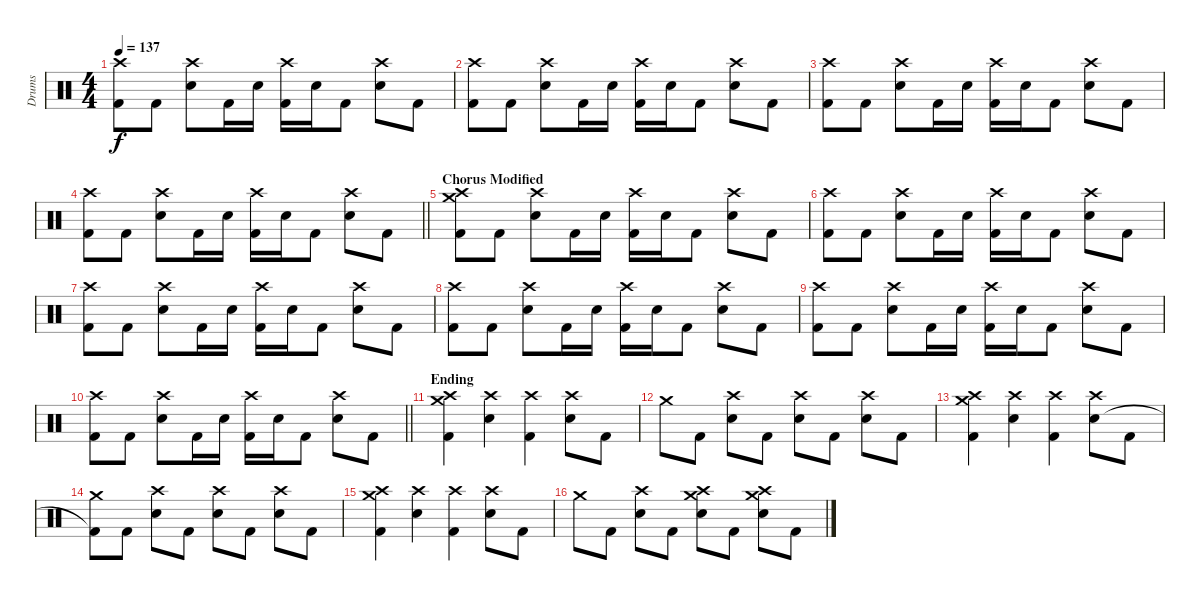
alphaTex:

\track ("Drums" "Drums") {instrument percussion}
\staff {score}
\articulation defaults
\ts (4 4)
\tempo 137
\clef neutral
\ks c
("Crash high (hit)" "Kick (hit) 2").8{dy f} "Kick (hit) 2".8 ("Crash high (hit)" "Electric Snare (hit)").8 "Kick (hit) 2".16 "Electric Snare (hit)".16 ("Crash high (hit)" "Kick (hit) 2").16 "Electric Snare (hit)".16 "Kick (hit) 2".8 ("Crash high (hit)" "Electric Snare (hit)").8 "Kick (hit) 2".8 |
("Crash high (hit)" "Kick (hit) 2").8 "Kick (hit) 2".8 ("Crash high (hit)" "Electric Snare (hit)").8 "Kick (hit) 2".16 "Electric Snare (hit)".16 ("Crash high (hit)" "Kick (hit) 2").16 "Electric Snare (hit)".16 "Kick (hit) 2".8 ("Crash high (hit)" "Electric Snare (hit)").8 "Kick (hit) 2".8 |
("Crash high (hit)" "Kick (hit) 2").8 "Kick (hit) 2".8 ("Crash high (hit)" "Electric Snare (hit)").8 "Kick (hit) 2".16 "Electric Snare (hit)".16 ("Crash high (hit)" "Kick (hit) 2").16 "Electric Snare (hit)".16 "Kick (hit) 2".8 ("Crash high (hit)" "Electric Snare (hit)").8 "Kick (hit) 2".8 |
\barLineRight lightlight
("Crash high (hit)" "Kick (hit) 2").8 "Kick (hit) 2".8 ("Crash high (hit)" "Electric Snare (hit)").8 "Kick (hit) 2".16 "Electric Snare (hit)".16 ("Crash high (hit)" "Kick (hit) 2").16 "Electric Snare (hit)".16 "Kick (hit) 2".8 ("Crash high (hit)" "Electric Snare (hit)").8 "Kick (hit) 2".8 |
\section ("" "Chorus Modified")
("Crash medium (hit)" "Crash high (hit)" "Kick (hit) 2").8 "Kick (hit) 2".8 ("Crash high (hit)" "Electric Snare (hit)").8 "Kick (hit) 2".16 "Electric Snare (hit)".16 ("Crash high (hit)" "Kick (hit) 2").16 "Electric Snare (hit)".16 "Kick (hit) 2".8 ("Crash high (hit)" "Electric Snare (hit)").8 "Kick (hit) 2".8 |
("Crash high (hit)" "Kick (hit) 2").8 "Kick (hit) 2".8 ("Crash high (hit)" "Electric Snare (hit)").8 "Kick (hit) 2".16 "Electric Snare (hit)".16 ("Crash high (hit)" "Kick (hit) 2").16 "Electric Snare (hit)".16 "Kick (hit) 2".8 ("Crash high (hit)" "Electric Snare (hit)").8 "Kick (hit) 2".8 |
("Crash high (hit)" "Kick (hit) 2").8 "Kick (hit) 2".8 ("Crash high (hit)" "Electric Snare (hit)").8 "Kick (hit) 2".16 "Electric Snare (hit)".16 ("Crash high (hit)" "Kick (hit) 2").16 "Electric Snare (hit)".16 "Kick (hit) 2".8 ("Crash high (hit)" "Electric Snare (hit)").8 "Kick (hit) 2".8 |
("Crash high (hit)" "Kick (hit) 2").8 "Kick (hit) 2".8 ("Crash high (hit)" "Electric Snare (hit)").8 "Kick (hit) 2".16 "Electric Snare (hit)".16 ("Crash high (hit)" "Kick (hit) 2").16 "Electric Snare (hit)".16 "Kick (hit) 2".8 ("Crash high (hit)" "Electric Snare (hit)").8 "Kick (hit) 2".8 |
("Crash high (hit)" "Kick (hit) 2").8 "Kick (hit) 2".8 ("Crash high (hit)" "Electric Snare (hit)").8 "Kick (hit) 2".16 "Electric Snare (hit)".16 ("Crash high (hit)" "Kick (hit) 2").16 "Electric Snare (hit)".16 "Kick (hit) 2".8 ("Crash high (hit)" "Electric Snare (hit)").8 "Kick (hit) 2".8 |
\barLineRight lightlight
("Crash high (hit)" "Kick (hit) 2").8 "Kick (hit) 2".8 ("Crash high (hit)" "Electric Snare (hit)").8 "Kick (hit) 2".16 "Electric Snare (hit)".16 ("Crash high (hit)" "Kick (hit) 2").16 "Electric Snare (hit)".16 "Kick (hit) 2".8 ("Crash high (hit)" "Electric Snare (hit)").8 "Kick (hit) 2".8 |
\section ("" "Ending")
("Crash medium (hit)" "Crash high (hit)" "Kick (hit) 2").4 ("Crash high (hit)" "Electric Snare (hit)").4 ("Crash high (hit)" "Kick (hit) 2").4 ("Crash high (hit)" "Electric Snare (hit)").8 "Kick (hit) 2".8 |
"Crash medium (hit)".8 "Kick (hit) 2".8 ("Crash high (hit)" "Electric Snare (hit)").8 "Kick (hit) 2".8 ("Crash high (hit)" "Electric Snare (hit)").8 "Kick (hit) 2".8 ("Crash high (hit)" "Electric Snare (hit)").8 "Kick (hit) 2".8 |
("Crash medium (hit)" "Crash high (hit)" "Kick (hit) 2").4 ("Crash high (hit)" "Electric Snare (hit)").4 ("Crash high (hit)" "Kick (hit) 2").4 ("Crash high (hit)" "Electric Snare (hit)").8 "Kick (hit) 2".8 |
("Crash medium (hit)" "Kick (hit) 2"{t}).8 "Kick (hit) 2".8 ("Crash high (hit)" "Electric Snare (hit)").8 "Kick (hit) 2".8 ("Crash high (hit)" "Electric Snare (hit)").8 "Kick (hit) 2".8 ("Crash high (hit)" "Electric Snare (hit)").8 "Kick (hit) 2".8 |
("Crash medium (hit)" "Crash high (hit)" "Kick (hit) 2").4 ("Crash high (hit)" "Electric Snare (hit)").4 ("Crash high (hit)" "Kick (hit) 2").4 ("Crash high (hit)" "Electric Snare (hit)").8 "Kick (hit) 2".8 |
"Crash medium (hit)".8 "Kick (hit) 2".8 ("Crash high (hit)" "Electric Snare (hit)").8 "Kick (hit) 2".8 ("Crash medium (hit)" "Crash high (hit)" "Electric Snare (hit)").8 "Kick (hit) 2".8 ("Crash medium (hit)" "Crash high (hit)" "Electric Snare (hit)").8 "Kick (hit) 2".8
